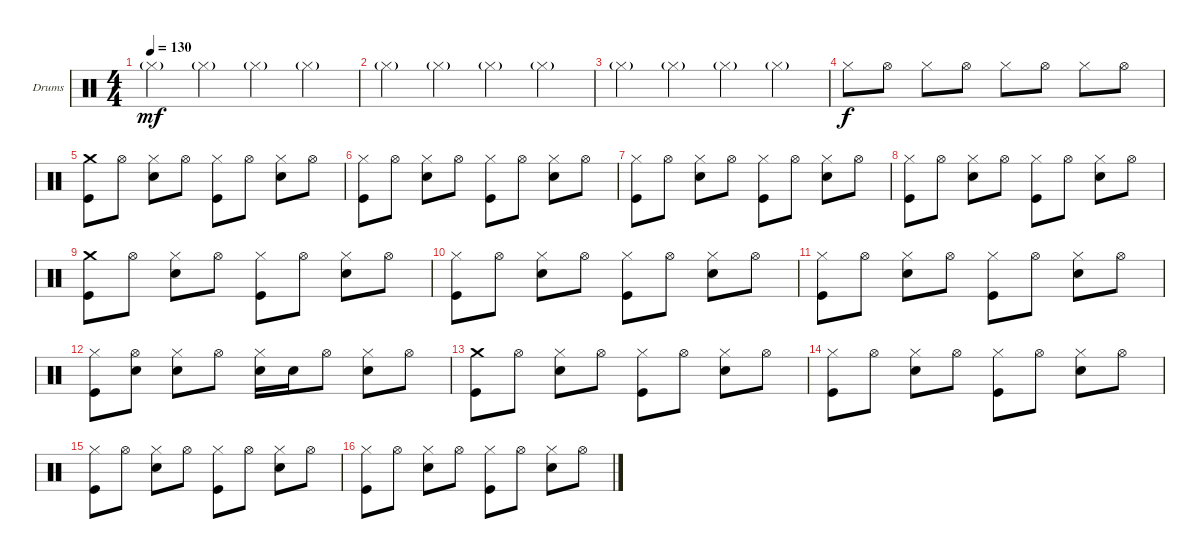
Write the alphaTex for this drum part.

\bracketExtendMode groupsimilarinstruments
\firstSystemTrackNameOrientation horizontal
\otherSystemsTrackNameOrientation horizontal
\track ("Drumkit" "Drums") {instrument percussion}
\staff {score}
\articulation defaults
\ts (4 4)
\tempo 130
\clef neutral
\ks c "Hi-Hat (closed)"{g}.4{dy mf} "Hi-Hat (closed)"{g}.4 "Hi-Hat (closed)"{g}.4 "Hi-Hat (closed)"{g}.4
|
"Hi-Hat (closed)"{g}.4 "Hi-Hat (closed)"{g}.4 "Hi-Hat (closed)"{g}.4 "Hi-Hat (closed)"{g}.4 |
"Hi-Hat (closed)"{g}.4 "Hi-Hat (closed)"{g}.4 "Hi-Hat (closed)"{g}.4 "Hi-Hat (closed)"{g}.4 |
"Hi-Hat (closed)".8{dy f} "Hi-Hat (open)".8 "Hi-Hat (closed)".8 "Hi-Hat (open)".8 "Hi-Hat (closed)".8 "Hi-Hat (open)".8 "Hi-Hat (closed)".8 "Hi-Hat (open)".8 |
("Crash medium (hit)" "Kick (hit)").8 "Hi-Hat (open)".8 ("Hi-Hat (closed)" "Snare (hit) 2").8 "Hi-Hat (open)".8 ("Hi-Hat (closed)" "Kick (hit)").8 "Hi-Hat (open)".8 ("Hi-Hat (closed)" "Snare (hit) 2").8 "Hi-Hat (open)".8 |
("Hi-Hat (closed)" "Kick (hit)").8 "Hi-Hat (open)".8 ("Hi-Hat (closed)" "Snare (hit) 2").8 "Hi-Hat (open)".8 ("Hi-Hat (closed)" "Kick (hit)").8 "Hi-Hat (open)".8 ("Hi-Hat (closed)" "Snare (hit) 2").8 "Hi-Hat (open)".8 |
("Hi-Hat (closed)" "Kick (hit)").8 "Hi-Hat (open)".8 ("Hi-Hat (closed)" "Snare (hit) 2").8 "Hi-Hat (open)".8 ("Hi-Hat (closed)" "Kick (hit)").8 "Hi-Hat (open)".8 ("Hi-Hat (closed)" "Snare (hit) 2").8 "Hi-Hat (open)".8 |
("Hi-Hat (closed)" "Kick (hit)").8 "Hi-Hat (open)".8 ("Hi-Hat (closed)" "Snare (hit) 2").8 "Hi-Hat (open)".8 ("Hi-Hat (closed)" "Kick (hit)").8 "Hi-Hat (open)".8 ("Hi-Hat (closed)" "Snare (hit) 2").8 "Hi-Hat (open)".8 |
("Crash medium (hit)" "Kick (hit)").8 "Hi-Hat (open)".8 ("Hi-Hat (closed)" "Snare (hit) 2").8 "Hi-Hat (open)".8 ("Hi-Hat (closed)" "Kick (hit)").8 "Hi-Hat (open)".8 ("Hi-Hat (closed)" "Snare (hit) 2").8 "Hi-Hat (open)".8 |
("Hi-Hat (closed)" "Kick (hit)").8 "Hi-Hat (open)".8 ("Hi-Hat (closed)" "Snare (hit) 2").8 "Hi-Hat (open)".8 ("Hi-Hat (closed)" "Kick (hit)").8 "Hi-Hat (open)".8 ("Hi-Hat (closed)" "Snare (hit) 2").8 "Hi-Hat (open)".8 |
("Hi-Hat (closed)" "Kick (hit)").8 "Hi-Hat (open)".8 ("Hi-Hat (closed)" "Snare (hit) 2").8 "Hi-Hat (open)".8 ("Hi-Hat (closed)" "Kick (hit)").8 "Hi-Hat (open)".8 ("Hi-Hat (closed)" "Snare (hit) 2").8 "Hi-Hat (open)".8 |
("Hi-Hat (closed)" "Kick (hit)").8 ("Hi-Hat (open)" "Snare (hit) 2").8 ("Hi-Hat (closed)" "Snare (hit) 2").8 "Hi-Hat (open)".8 ("Hi-Hat (closed)" "Snare (hit) 2").16 "Snare (hit) 2".16 "Hi-Hat (open)".8 ("Hi-Hat (closed)" "Snare (hit) 2").8 "Hi-Hat (open)".8 |
("Crash medium (hit)" "Kick (hit)").8 "Hi-Hat (open)".8 ("Hi-Hat (closed)" "Snare (hit) 2").8 "Hi-Hat (open)".8 ("Hi-Hat (closed)" "Kick (hit)").8 "Hi-Hat (open)".8 ("Hi-Hat (closed)" "Snare (hit) 2").8 "Hi-Hat (open)".8 |
("Hi-Hat (closed)" "Kick (hit)").8 "Hi-Hat (open)".8 ("Hi-Hat (closed)" "Snare (hit) 2").8 "Hi-Hat (open)".8 ("Hi-Hat (closed)" "Kick (hit)").8 "Hi-Hat (open)".8 ("Hi-Hat (closed)" "Snare (hit) 2").8 "Hi-Hat (open)".8 |
("Hi-Hat (closed)" "Kick (hit)").8 "Hi-Hat (open)".8 ("Hi-Hat (closed)" "Snare (hit) 2").8 "Hi-Hat (open)".8 ("Hi-Hat (closed)" "Kick (hit)").8 "Hi-Hat (open)".8 ("Hi-Hat (closed)" "Snare (hit) 2").8 "Hi-Hat (open)".8 |
("Hi-Hat (closed)" "Kick (hit)").8 "Hi-Hat (open)".8 ("Hi-Hat (closed)" "Snare (hit) 2").8 "Hi-Hat (open)".8 ("Hi-Hat (closed)" "Kick (hit)").8 "Hi-Hat (open)".8 ("Hi-Hat (closed)" "Snare (hit) 2").8 "Hi-Hat (open)".8
